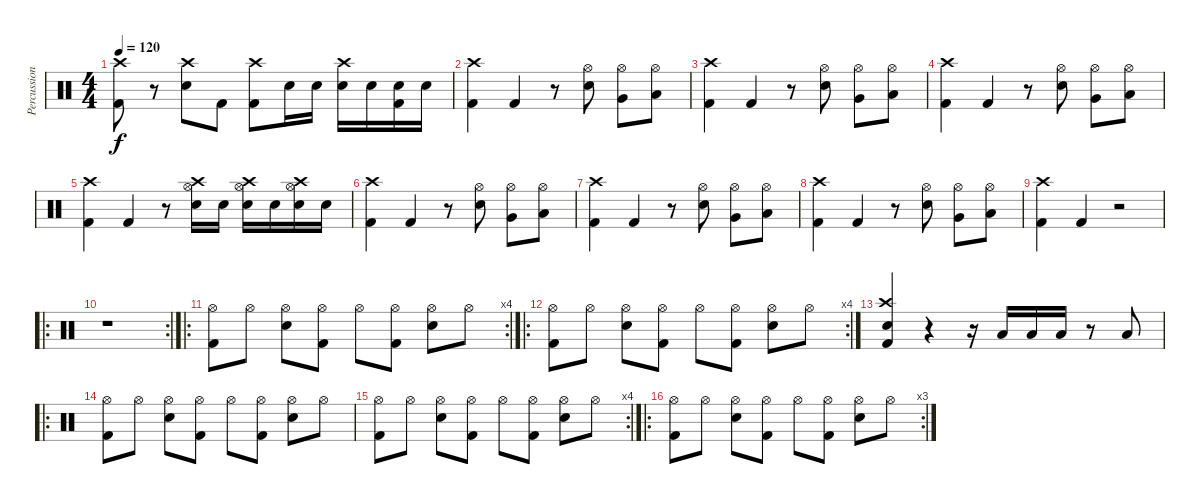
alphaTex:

\track ("Percussions" "Percussion") {instrument percussion}
\staff {score}
\articulation defaults
\ts (4 4)
\tempo 120
\clef neutral
\ks c
("Kick (hit) 2" "Crash high (hit)").8{dy f} r.8 ("Snare (hit) 2" "Crash high (hit)").8 "Kick (hit) 2".8 ("Kick (hit) 2" "Crash high (hit)").8 "Snare (hit) 2".16 "Snare (hit) 2".16 ("Snare (hit) 2" "Crash high (hit)").16 "Snare (hit) 2".16 ("Kick (hit) 2" "Snare (hit) 2").16 "Snare (hit) 2".16 |
("Kick (hit) 2" "Crash high (hit)").4 "Kick (hit) 2".4 r.8 ("Snare (hit) 2" "Hi-Hat (open)").8 ("Very Low Tom (hit)" "Hi-Hat (open)").8 ("Low Floor Tom (hit)" "Hi-Hat (open)").8 |
("Kick (hit) 2" "Crash high (hit)").4 "Kick (hit) 2".4 r.8 ("Snare (hit) 2" "Hi-Hat (open)").8 ("Very Low Tom (hit)" "Hi-Hat (open)").8 ("Low Floor Tom (hit)" "Hi-Hat (open)").8 |
("Kick (hit) 2" "Crash high (hit)").4 "Kick (hit) 2".4 r.8 ("Snare (hit) 2" "Hi-Hat (open)").8 ("Very Low Tom (hit)" "Hi-Hat (open)").8 ("Low Floor Tom (hit)" "Hi-Hat (open)").8 |
("Kick (hit) 2" "Crash high (hit)").4 "Kick (hit) 2".4 r.8 ("Snare (hit) 2" "Hi-Hat (open)" "Crash high (hit)").16 "Snare (hit) 2".16 ("Snare (hit) 2" "Hi-Hat (open)" "Crash high (hit)").16 "Snare (hit) 2".16 ("Snare (hit) 2" "Hi-Hat (open)" "Crash high (hit)").16 "Snare (hit) 2".16 |
("Kick (hit) 2" "Crash high (hit)").4 "Kick (hit) 2".4 r.8 ("Snare (hit) 2" "Hi-Hat (open)").8 ("Very Low Tom (hit)" "Hi-Hat (open)").8 ("Low Floor Tom (hit)" "Hi-Hat (open)").8 |
("Kick (hit) 2" "Crash high (hit)").4 "Kick (hit) 2".4 r.8 ("Snare (hit) 2" "Hi-Hat (open)").8 ("Very Low Tom (hit)" "Hi-Hat (open)").8 ("Low Floor Tom (hit)" "Hi-Hat (open)").8 |
("Kick (hit) 2" "Crash high (hit)").4 "Kick (hit) 2".4 r.8 ("Snare (hit) 2" "Hi-Hat (open)").8 ("Very Low Tom (hit)" "Hi-Hat (open)").8 ("Low Floor Tom (hit)" "Hi-Hat (open)").8 |
("Kick (hit) 2" "Crash high (hit)").4 "Kick (hit) 2".4 r.2 |
\ro
\rc 2
r.1 |
\ro
\rc 4
("Kick (hit) 2" "Hi-Hat (open)").8 "Hi-Hat (open)".8 ("Snare (hit) 2" "Hi-Hat (open)").8 ("Kick (hit) 2" "Hi-Hat (open)").8 "Hi-Hat (open)".8 ("Kick (hit) 2" "Hi-Hat (open)").8 ("Snare (hit) 2" "Hi-Hat (open)").8 "Hi-Hat (open)".8 |
\ro
\rc 4
("Kick (hit) 2" "Hi-Hat (open)").8 "Hi-Hat (open)".8 ("Snare (hit) 2" "Hi-Hat (open)").8 ("Kick (hit) 2" "Hi-Hat (open)").8 "Hi-Hat (open)".8 ("Kick (hit) 2" "Hi-Hat (open)").8 ("Snare (hit) 2" "Hi-Hat (open)").8 "Hi-Hat (open)".8 |
("Kick (hit) 2" "Snare (hit) 2" "Crash high (hit)").4 r.4 r.16 "Low Floor Tom (hit)".16 "Low Floor Tom (hit)".16 "Low Floor Tom (hit)".16 r.8 "Low Floor Tom (hit)".8 |
\ro
("Kick (hit) 2" "Hi-Hat (open)").8 "Hi-Hat (open)".8 ("Snare (hit) 2" "Hi-Hat (open)").8 ("Kick (hit) 2" "Hi-Hat (open)").8 "Hi-Hat (open)".8 ("Kick (hit) 2" "Hi-Hat (open)").8 ("Snare (hit) 2" "Hi-Hat (open)").8 "Hi-Hat (open)".8 |
\rc 4
("Kick (hit) 2" "Hi-Hat (open)").8 "Hi-Hat (open)".8 ("Snare (hit) 2" "Hi-Hat (open)").8 ("Kick (hit) 2" "Hi-Hat (open)").8 "Hi-Hat (open)".8 ("Kick (hit) 2" "Hi-Hat (open)").8 ("Snare (hit) 2" "Hi-Hat (open)").8 "Hi-Hat (open)".8 |
\ro
\rc 3
("Kick (hit) 2" "Hi-Hat (open)").8 "Hi-Hat (open)".8 ("Snare (hit) 2" "Hi-Hat (open)").8 ("Kick (hit) 2" "Hi-Hat (open)").8 "Hi-Hat (open)".8 ("Kick (hit) 2" "Hi-Hat (open)").8 ("Snare (hit) 2" "Hi-Hat (open)").8 "Hi-Hat (open)".8
